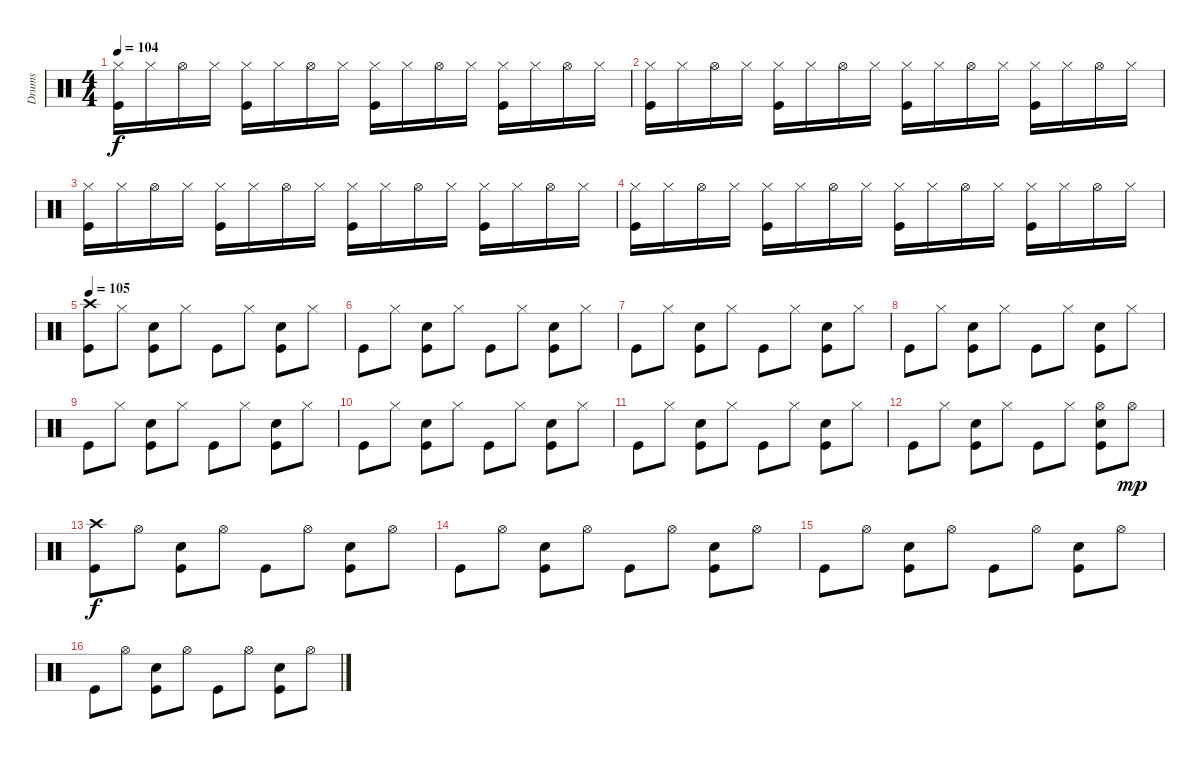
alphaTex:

\track ("Drums" "Drums") {instrument percussion}
\staff {score}
\articulation defaults
\ts (4 4)
\tempo 104
\clef neutral
\ks c
("Hi-Hat (closed)" "Kick (hit)").16{dy f} "Hi-Hat (closed)".16 "Hi-Hat (open)".16 "Hi-Hat (closed)".16 ("Hi-Hat (closed)" "Kick (hit)").16 "Hi-Hat (closed)".16 "Hi-Hat (open)".16 "Hi-Hat (closed)".16 ("Hi-Hat (closed)" "Kick (hit)").16 "Hi-Hat (closed)".16 "Hi-Hat (open)".16 "Hi-Hat (closed)".16 ("Hi-Hat (closed)" "Kick (hit)").16 "Hi-Hat (closed)".16 "Hi-Hat (open)".16 "Hi-Hat (closed)".16 |
("Hi-Hat (closed)" "Kick (hit)").16 "Hi-Hat (closed)".16 "Hi-Hat (open)".16 "Hi-Hat (closed)".16 ("Hi-Hat (closed)" "Kick (hit)").16 "Hi-Hat (closed)".16 "Hi-Hat (open)".16 "Hi-Hat (closed)".16 ("Hi-Hat (closed)" "Kick (hit)").16 "Hi-Hat (closed)".16 "Hi-Hat (open)".16 "Hi-Hat (closed)".16 ("Hi-Hat (closed)" "Kick (hit)").16 "Hi-Hat (closed)".16 "Hi-Hat (open)".16 "Hi-Hat (closed)".16 |
("Hi-Hat (closed)" "Kick (hit)").16 "Hi-Hat (closed)".16 "Hi-Hat (open)".16 "Hi-Hat (closed)".16 ("Hi-Hat (closed)" "Kick (hit)").16 "Hi-Hat (closed)".16 "Hi-Hat (open)".16 "Hi-Hat (closed)".16 ("Hi-Hat (closed)" "Kick (hit)").16 "Hi-Hat (closed)".16 "Hi-Hat (open)".16 "Hi-Hat (closed)".16 ("Hi-Hat (closed)" "Kick (hit)").16 "Hi-Hat (closed)".16 "Hi-Hat (open)".16 "Hi-Hat (closed)".16 |
("Hi-Hat (closed)" "Kick (hit)").16 "Hi-Hat (closed)".16 "Hi-Hat (open)".16 "Hi-Hat (closed)".16 ("Hi-Hat (closed)" "Kick (hit)").16 "Hi-Hat (closed)".16 "Hi-Hat (open)".16 "Hi-Hat (closed)".16 ("Hi-Hat (closed)" "Kick (hit)").16 "Hi-Hat (closed)".16 "Hi-Hat (open)".16 "Hi-Hat (closed)".16 ("Hi-Hat (closed)" "Kick (hit)").16 "Hi-Hat (closed)".16 "Hi-Hat (open)".16 "Hi-Hat (closed)".16 |
\tempo 105
("Crash high (hit)" "Kick (hit)").8 "Hi-Hat (closed)".8 ("Snare (hit) 2" "Kick (hit)").8 "Hi-Hat (closed)".8 "Kick (hit)".8 "Hi-Hat (closed)".8 ("Snare (hit) 2" "Kick (hit)").8 "Hi-Hat (closed)".8 |
"Kick (hit)".8 "Hi-Hat (closed)".8 ("Snare (hit) 2" "Kick (hit)").8 "Hi-Hat (closed)".8 "Kick (hit)".8 "Hi-Hat (closed)".8 ("Snare (hit) 2" "Kick (hit)").8 "Hi-Hat (closed)".8 |
"Kick (hit)".8 "Hi-Hat (closed)".8 ("Snare (hit) 2" "Kick (hit)").8 "Hi-Hat (closed)".8 "Kick (hit)".8 "Hi-Hat (closed)".8 ("Snare (hit) 2" "Kick (hit)").8 "Hi-Hat (closed)".8 |
"Kick (hit)".8 "Hi-Hat (closed)".8 ("Snare (hit) 2" "Kick (hit)").8 "Hi-Hat (closed)".8 "Kick (hit)".8 "Hi-Hat (closed)".8 ("Snare (hit) 2" "Kick (hit)").8 "Hi-Hat (closed)".8 |
"Kick (hit)".8 "Hi-Hat (closed)".8 ("Snare (hit) 2" "Kick (hit)").8 "Hi-Hat (closed)".8 "Kick (hit)".8 "Hi-Hat (closed)".8 ("Snare (hit) 2" "Kick (hit)").8 "Hi-Hat (closed)".8 |
"Kick (hit)".8 "Hi-Hat (closed)".8 ("Snare (hit) 2" "Kick (hit)").8 "Hi-Hat (closed)".8 "Kick (hit)".8 "Hi-Hat (closed)".8 ("Snare (hit) 2" "Kick (hit)").8 "Hi-Hat (closed)".8 |
"Kick (hit)".8 "Hi-Hat (closed)".8 ("Snare (hit) 2" "Kick (hit)").8 "Hi-Hat (closed)".8 "Kick (hit)".8 "Hi-Hat (closed)".8 ("Snare (hit) 2" "Kick (hit)").8 "Hi-Hat (closed)".8 |
"Kick (hit)".8 "Hi-Hat (closed)".8 ("Snare (hit) 2" "Kick (hit)").8 "Hi-Hat (closed)".8 "Kick (hit)".8 "Hi-Hat (closed)".8 ("Hi-Hat (open)" "Snare (hit) 2" "Kick (hit)").8 "Hi-Hat (open)".8{dy mp} |
("Crash high (hit)" "Kick (hit)").8{dy f} "Hi-Hat (open)".8 ("Snare (hit) 2" "Kick (hit)").8 "Hi-Hat (open)".8 "Kick (hit)".8 "Hi-Hat (open)".8 ("Snare (hit) 2" "Kick (hit)").8 "Hi-Hat (open)".8 |
"Kick (hit)".8 "Hi-Hat (open)".8 ("Snare (hit) 2" "Kick (hit)").8 "Hi-Hat (open)".8 "Kick (hit)".8 "Hi-Hat (open)".8 ("Snare (hit) 2" "Kick (hit)").8 "Hi-Hat (open)".8 |
"Kick (hit)".8 "Hi-Hat (open)".8 ("Snare (hit) 2" "Kick (hit)").8 "Hi-Hat (open)".8 "Kick (hit)".8 "Hi-Hat (open)".8 ("Snare (hit) 2" "Kick (hit)").8 "Hi-Hat (open)".8 |
"Kick (hit)".8 "Hi-Hat (open)".8 ("Snare (hit) 2" "Kick (hit)").8 "Hi-Hat (open)".8 "Kick (hit)".8 "Hi-Hat (open)".8 ("Snare (hit) 2" "Kick (hit)").8 "Hi-Hat (open)".8
